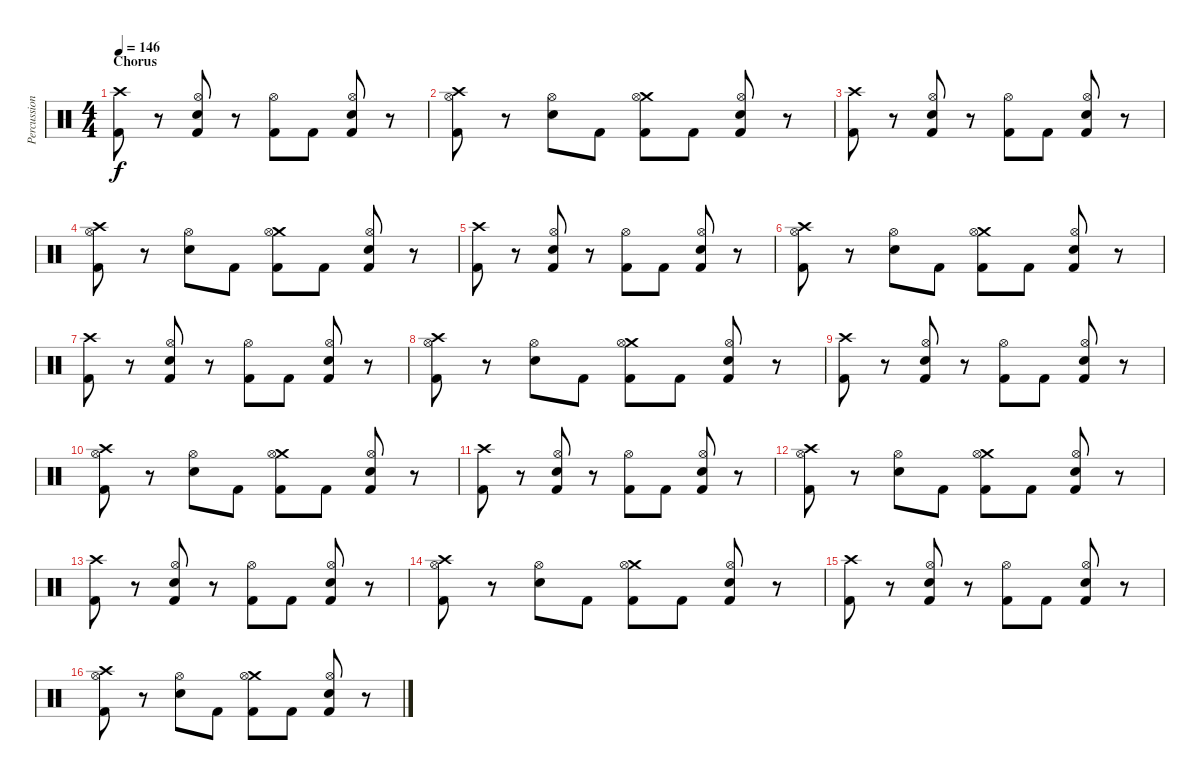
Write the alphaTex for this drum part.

\track ("Percussion" "Percussion") {instrument percussion}
\staff {score}
\articulation defaults
\ts (4 4)
\section ("" "Chorus")
\tempo 146
\clef neutral
\ks c
("Crash high (hit)" "Kick (hit) 2").8{dy f} r.8 ("Hi-Hat (open)" "Electric Snare (hit)" "Kick (hit) 2").8 r.8 ("Hi-Hat (open)" "Kick (hit) 2").8 "Kick (hit) 2".8 ("Hi-Hat (open)" "Electric Snare (hit)" "Kick (hit) 2").8 r.8 |
("Crash high (hit)" "Hi-Hat (open)" "Kick (hit) 2").8 r.8 ("Hi-Hat (open)" "Electric Snare (hit)").8 "Kick (hit) 2".8 ("Crash medium (hit)" "Hi-Hat (open)" "Kick (hit) 2").8 "Kick (hit) 2".8 ("Hi-Hat (open)" "Electric Snare (hit)" "Kick (hit) 2").8 r.8 |
("Crash high (hit)" "Kick (hit) 2").8 r.8 ("Hi-Hat (open)" "Electric Snare (hit)" "Kick (hit) 2").8 r.8 ("Hi-Hat (open)" "Kick (hit) 2").8 "Kick (hit) 2".8 ("Hi-Hat (open)" "Electric Snare (hit)" "Kick (hit) 2").8 r.8 |
("Crash high (hit)" "Hi-Hat (open)" "Kick (hit) 2").8 r.8 ("Hi-Hat (open)" "Electric Snare (hit)").8 "Kick (hit) 2".8 ("Crash medium (hit)" "Hi-Hat (open)" "Kick (hit) 2").8 "Kick (hit) 2".8 ("Hi-Hat (open)" "Electric Snare (hit)" "Kick (hit) 2").8 r.8 |
("Crash high (hit)" "Kick (hit) 2").8 r.8 ("Hi-Hat (open)" "Electric Snare (hit)" "Kick (hit) 2").8 r.8 ("Hi-Hat (open)" "Kick (hit) 2").8 "Kick (hit) 2".8 ("Hi-Hat (open)" "Electric Snare (hit)" "Kick (hit) 2").8 r.8 |
("Crash high (hit)" "Hi-Hat (open)" "Kick (hit) 2").8 r.8 ("Hi-Hat (open)" "Electric Snare (hit)").8 "Kick (hit) 2".8 ("Crash medium (hit)" "Hi-Hat (open)" "Kick (hit) 2").8 "Kick (hit) 2".8 ("Hi-Hat (open)" "Electric Snare (hit)" "Kick (hit) 2").8 r.8 |
("Crash high (hit)" "Kick (hit) 2").8 r.8 ("Hi-Hat (open)" "Electric Snare (hit)" "Kick (hit) 2").8 r.8 ("Hi-Hat (open)" "Kick (hit) 2").8 "Kick (hit) 2".8 ("Hi-Hat (open)" "Electric Snare (hit)" "Kick (hit) 2").8 r.8 |
("Crash high (hit)" "Hi-Hat (open)" "Kick (hit) 2").8 r.8 ("Hi-Hat (open)" "Electric Snare (hit)").8 "Kick (hit) 2".8 ("Crash medium (hit)" "Hi-Hat (open)" "Kick (hit) 2").8 "Kick (hit) 2".8 ("Hi-Hat (open)" "Electric Snare (hit)" "Kick (hit) 2").8 r.8 |
("Crash high (hit)" "Kick (hit) 2").8 r.8 ("Hi-Hat (open)" "Electric Snare (hit)" "Kick (hit) 2").8 r.8 ("Hi-Hat (open)" "Kick (hit) 2").8 "Kick (hit) 2".8 ("Hi-Hat (open)" "Electric Snare (hit)" "Kick (hit) 2").8 r.8 |
("Crash high (hit)" "Hi-Hat (open)" "Kick (hit) 2").8 r.8 ("Hi-Hat (open)" "Electric Snare (hit)").8 "Kick (hit) 2".8 ("Crash medium (hit)" "Hi-Hat (open)" "Kick (hit) 2").8 "Kick (hit) 2".8 ("Hi-Hat (open)" "Electric Snare (hit)" "Kick (hit) 2").8 r.8 |
("Crash high (hit)" "Kick (hit) 2").8 r.8 ("Hi-Hat (open)" "Electric Snare (hit)" "Kick (hit) 2").8 r.8 ("Hi-Hat (open)" "Kick (hit) 2").8 "Kick (hit) 2".8 ("Hi-Hat (open)" "Electric Snare (hit)" "Kick (hit) 2").8 r.8 |
("Crash high (hit)" "Hi-Hat (open)" "Kick (hit) 2").8 r.8 ("Hi-Hat (open)" "Electric Snare (hit)").8 "Kick (hit) 2".8 ("Crash medium (hit)" "Hi-Hat (open)" "Kick (hit) 2").8 "Kick (hit) 2".8 ("Hi-Hat (open)" "Electric Snare (hit)" "Kick (hit) 2").8 r.8 |
("Crash high (hit)" "Kick (hit) 2").8 r.8 ("Hi-Hat (open)" "Electric Snare (hit)" "Kick (hit) 2").8 r.8 ("Hi-Hat (open)" "Kick (hit) 2").8 "Kick (hit) 2".8 ("Hi-Hat (open)" "Electric Snare (hit)" "Kick (hit) 2").8 r.8 |
("Crash high (hit)" "Hi-Hat (open)" "Kick (hit) 2").8 r.8 ("Hi-Hat (open)" "Electric Snare (hit)").8 "Kick (hit) 2".8 ("Crash medium (hit)" "Hi-Hat (open)" "Kick (hit) 2").8 "Kick (hit) 2".8 ("Hi-Hat (open)" "Electric Snare (hit)" "Kick (hit) 2").8 r.8 |
("Crash high (hit)" "Kick (hit) 2").8 r.8 ("Hi-Hat (open)" "Electric Snare (hit)" "Kick (hit) 2").8 r.8 ("Hi-Hat (open)" "Kick (hit) 2").8 "Kick (hit) 2".8 ("Hi-Hat (open)" "Electric Snare (hit)" "Kick (hit) 2").8 r.8 |
("Crash high (hit)" "Hi-Hat (open)" "Kick (hit) 2").8 r.8 ("Hi-Hat (open)" "Electric Snare (hit)").8 "Kick (hit) 2".8 ("Crash medium (hit)" "Hi-Hat (open)" "Kick (hit) 2").8 "Kick (hit) 2".8 ("Hi-Hat (open)" "Electric Snare (hit)" "Kick (hit) 2").8 r.8
